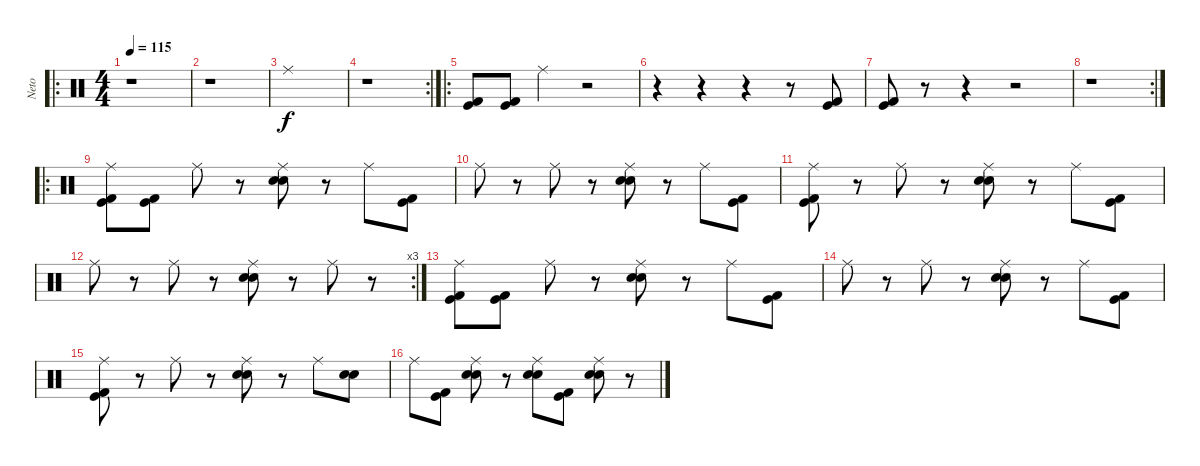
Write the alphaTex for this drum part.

\track ("Neto" "Neto") {instrument percussion}
\staff {score}
\articulation defaults
\ro
\ts (4 4)
\tempo 115
\clef neutral
\ks c
r.1{dy f} |
r.1 |
"Ride (middle)".1 |
\rc 2
r.1 |
\ro
("Kick (hit)" "Kick (hit) 2").8 ("Kick (hit)" "Kick (hit) 2").8 "Ride (middle)".4 r.2 |
r.4 r.4 r.4 r.8 ("Kick (hit)" "Kick (hit) 2").8 |
("Kick (hit)" "Kick (hit) 2").8 r.8 r.4 r.2 |
\rc 2
r.1 |
\ro
("Ride (middle)" "Kick (hit)" "Kick (hit) 2").8 ("Kick (hit)" "Kick (hit) 2").8 "Ride (middle)".8 r.8 ("Ride (middle)" "Snare (hit) 2" "Snare (hit) 2").8 r.8 "Ride (middle)".8 ("Kick (hit)" "Kick (hit) 2").8 |
"Ride (middle)".8 r.8 "Ride (middle)".8 r.8 ("Ride (middle)" "Snare (hit) 2" "Snare (hit) 2").8 r.8 "Ride (middle)".8 ("Kick (hit)" "Kick (hit) 2").8 |
("Ride (middle)" "Kick (hit)" "Kick (hit) 2").8 r.8 "Ride (middle)".8 r.8 ("Ride (middle)" "Snare (hit) 2" "Snare (hit) 2").8 r.8 "Ride (middle)".8 ("Kick (hit)" "Kick (hit) 2").8 |
\rc 3 "Ride (middle)".8
r.8 "Ride (middle)".8 r.8 ("Ride (middle)" "Snare (hit) 2" "Snare (hit) 2").8 r.8 "Ride (middle)".8 r.8 |
("Ride (middle)" "Kick (hit)" "Kick (hit) 2").8 ("Kick (hit)" "Kick (hit) 2").8 "Ride (middle)".8 r.8 ("Ride (middle)" "Snare (hit) 2" "Snare (hit) 2").8 r.8 "Ride (middle)".8 ("Kick (hit)" "Kick (hit) 2").8 |
"Ride (middle)".8 r.8 "Ride (middle)".8 r.8 ("Ride (middle)" "Snare (hit) 2" "Snare (hit) 2").8 r.8 "Ride (middle)".8 ("Kick (hit)" "Kick (hit) 2").8 |
("Ride (middle)" "Kick (hit)" "Kick (hit) 2").8 r.8 "Ride (middle)".8 r.8 ("Ride (middle)" "Snare (hit) 2" "Snare (hit) 2").8 r.8 "Ride (middle)".8 ("Snare (hit) 2" "Snare (hit) 2").8 |
"Ride (middle)".8 ("Kick (hit)" "Kick (hit) 2").8 ("Ride (middle)" "Snare (hit) 2" "Snare (hit) 2").8 r.8 ("Ride (middle)" "Snare (hit) 2" "Snare (hit) 2").8 ("Kick (hit)" "Kick (hit) 2").8 ("Ride (middle)" "Snare (hit) 2" "Snare (hit) 2").8 r.8
